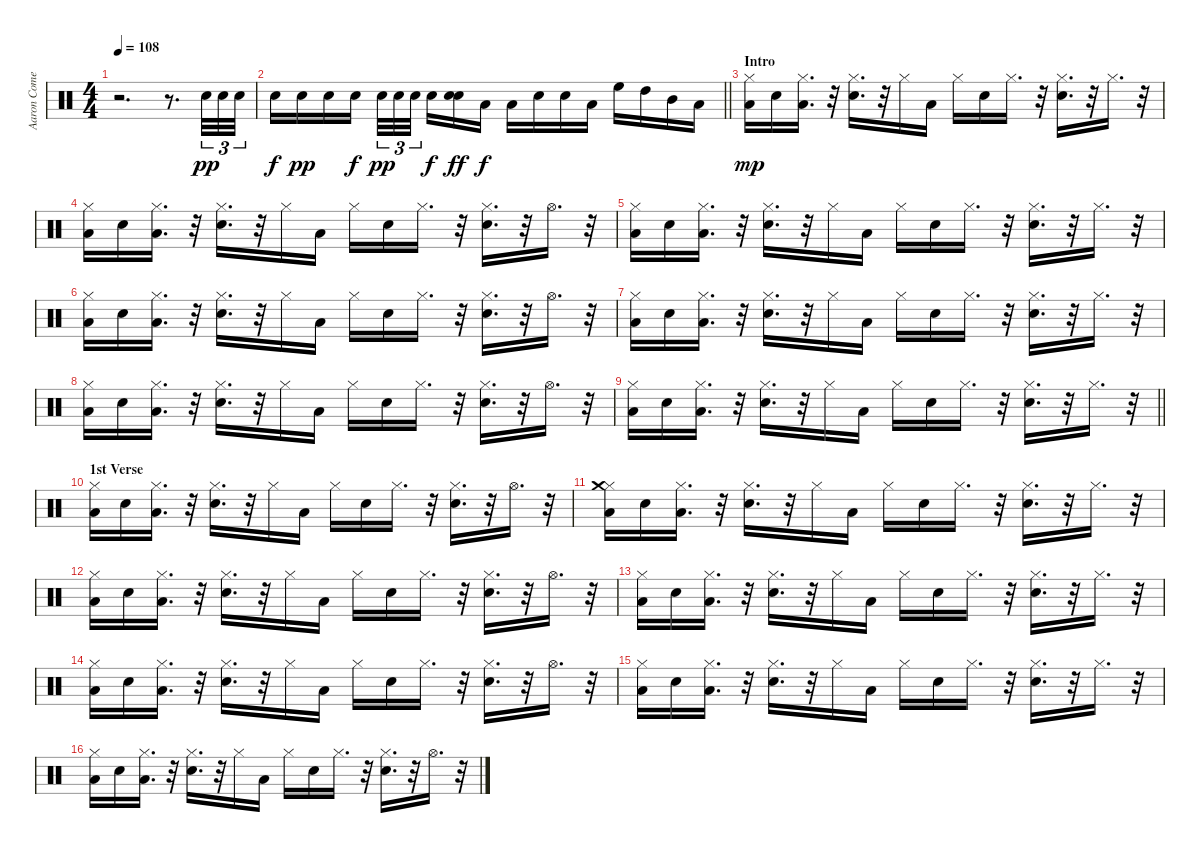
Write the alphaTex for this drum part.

\track ("Aaron Comess" "Aaron Come") {instrument percussion}
\staff {score}
\articulation defaults
\ts (4 4)
\tempo 108
\clef neutral
\ks c
r.2{d dy pp} r.8{d} "Snare (hit) 2".32{tu (3 2)} "Snare (hit) 2".32{tu (3 2)} "Snare (hit) 2".32{tu (3 2)} |
\barLineRight lightlight "Snare (hit) 2".16{dy f} "Snare (hit) 2".16{dy pp} "Snare (hit) 2".16 "Snare (hit) 2".16{dy f} "Snare (hit) 2".32{tu (3 2) dy pp} "Snare (hit) 2".32{tu (3 2)} "Snare (hit) 2".32{tu (3 2) beam splitsecondary} "Snare (hit) 2".16{dy f}
("Snare (hit) 2" "Electric Snare (hit)").16{dy ff} "Low Tom (hit)".16{dy f} "Low Tom (hit)".16 "Snare (hit) 2".16 "Snare (hit) 2".16 "Low Tom (hit)".16 "High Floor Tom (hit)".16 "High Tom (hit)".16 "Mid Tom (hit)".16 "Low Tom (hit)".16 |
\section ("" "Intro")
("Low Tom (hit)" "Hi-Hat (closed)").16{dy mp} "Electric Snare (hit)".16 ("Low Tom (hit)" "Hi-Hat (closed)").16{d} r.32 ("Snare (hit) 2" "Hi-Hat (closed)").16{d} r.32 "Hi-Hat (closed)".16 "Low Tom (hit)".16 "Hi-Hat (closed)".16 "Snare (hit) 2".16 "Hi-Hat (closed)".16{d} r.32 ("Snare (hit) 2" "Hi-Hat (closed)").16{d} r.32 "Hi-Hat (closed)".16{d} r.32 |
("Low Tom (hit)" "Hi-Hat (closed)").16 "Electric Snare (hit)".16 ("Low Tom (hit)" "Hi-Hat (closed)").16{d} r.32 ("Snare (hit) 2" "Hi-Hat (closed)").16{d} r.32 "Hi-Hat (closed)".16 "Low Tom (hit)".16 "Hi-Hat (closed)".16 "Snare (hit) 2".16 "Hi-Hat (closed)".16{d} r.32 ("Snare (hit) 2" "Hi-Hat (closed)").16{d} r.32 "Hi-Hat (open)".16{d} r.32 |
("Low Tom (hit)" "Hi-Hat (closed)").16 "Electric Snare (hit)".16 ("Low Tom (hit)" "Hi-Hat (closed)").16{d} r.32 ("Snare (hit) 2" "Hi-Hat (closed)").16{d} r.32 "Hi-Hat (closed)".16 "Low Tom (hit)".16 "Hi-Hat (closed)".16 "Snare (hit) 2".16 "Hi-Hat (closed)".16{d} r.32 ("Snare (hit) 2" "Hi-Hat (closed)").16{d} r.32 "Hi-Hat (closed)".16{d} r.32 |
("Low Tom (hit)" "Hi-Hat (closed)").16 "Electric Snare (hit)".16 ("Low Tom (hit)" "Hi-Hat (closed)").16{d} r.32 ("Snare (hit) 2" "Hi-Hat (closed)").16{d} r.32 "Hi-Hat (closed)".16 "Low Tom (hit)".16 "Hi-Hat (closed)".16 "Snare (hit) 2".16 "Hi-Hat (closed)".16{d} r.32 ("Snare (hit) 2" "Hi-Hat (closed)").16{d} r.32 "Hi-Hat (open)".16{d} r.32 |
("Low Tom (hit)" "Hi-Hat (closed)").16 "Electric Snare (hit)".16 ("Low Tom (hit)" "Hi-Hat (closed)").16{d} r.32 ("Snare (hit) 2" "Hi-Hat (closed)").16{d} r.32 "Hi-Hat (closed)".16 "Low Tom (hit)".16 "Hi-Hat (closed)".16 "Snare (hit) 2".16 "Hi-Hat (closed)".16{d} r.32 ("Snare (hit) 2" "Hi-Hat (closed)").16{d} r.32 "Hi-Hat (closed)".16{d} r.32 |
("Low Tom (hit)" "Hi-Hat (closed)").16 "Electric Snare (hit)".16 ("Low Tom (hit)" "Hi-Hat (closed)").16{d} r.32 ("Snare (hit) 2" "Hi-Hat (closed)").16{d} r.32 "Hi-Hat (closed)".16 "Low Tom (hit)".16 "Hi-Hat (closed)".16 "Snare (hit) 2".16 "Hi-Hat (closed)".16{d} r.32 ("Snare (hit) 2" "Hi-Hat (closed)").16{d} r.32 "Hi-Hat (open)".16{d} r.32 |
\barLineRight lightlight
("Low Tom (hit)" "Hi-Hat (closed)").16 "Electric Snare (hit)".16 ("Low Tom (hit)" "Hi-Hat (closed)").16{d} r.32 ("Snare (hit) 2" "Hi-Hat (closed)").16{d} r.32 "Hi-Hat (closed)".16 "Low Tom (hit)".16 "Hi-Hat (closed)".16 "Snare (hit) 2".16 "Hi-Hat (closed)".16{d} r.32 ("Snare (hit) 2" "Hi-Hat (closed)").16{d} r.32 "Hi-Hat (closed)".16{d} r.32 |
\section ("" "1st Verse")
("Low Tom (hit)" "Hi-Hat (closed)").16 "Electric Snare (hit)".16 ("Low Tom (hit)" "Hi-Hat (closed)").16{d} r.32 ("Snare (hit) 2" "Hi-Hat (closed)").16{d} r.32 "Hi-Hat (closed)".16 "Low Tom (hit)".16 "Hi-Hat (closed)".16 "Snare (hit) 2".16 "Hi-Hat (closed)".16{d} r.32 ("Snare (hit) 2" "Hi-Hat (closed)").16{d} r.32 "Hi-Hat (open)".16{d} r.32 |
("Low Tom (hit)" "Hi-Hat (closed)" "Crash medium (hit)").16 "Electric Snare (hit)".16 ("Low Tom (hit)" "Hi-Hat (closed)").16{d} r.32 ("Snare (hit) 2" "Hi-Hat (closed)").16{d} r.32 "Hi-Hat (closed)".16 "Low Tom (hit)".16 "Hi-Hat (closed)".16 "Snare (hit) 2".16 "Hi-Hat (closed)".16{d} r.32 ("Snare (hit) 2" "Hi-Hat (closed)").16{d} r.32 "Hi-Hat (closed)".16{d} r.32 |
("Low Tom (hit)" "Hi-Hat (closed)").16 "Electric Snare (hit)".16 ("Low Tom (hit)" "Hi-Hat (closed)").16{d} r.32 ("Snare (hit) 2" "Hi-Hat (closed)").16{d} r.32 "Hi-Hat (closed)".16 "Low Tom (hit)".16 "Hi-Hat (closed)".16 "Snare (hit) 2".16 "Hi-Hat (closed)".16{d} r.32 ("Snare (hit) 2" "Hi-Hat (closed)").16{d} r.32 "Hi-Hat (open)".16{d} r.32 |
("Low Tom (hit)" "Hi-Hat (closed)").16 "Electric Snare (hit)".16 ("Low Tom (hit)" "Hi-Hat (closed)").16{d} r.32 ("Snare (hit) 2" "Hi-Hat (closed)").16{d} r.32 "Hi-Hat (closed)".16 "Low Tom (hit)".16 "Hi-Hat (closed)".16 "Snare (hit) 2".16 "Hi-Hat (closed)".16{d} r.32 ("Snare (hit) 2" "Hi-Hat (closed)").16{d} r.32 "Hi-Hat (closed)".16{d} r.32 |
("Low Tom (hit)" "Hi-Hat (closed)").16 "Electric Snare (hit)".16 ("Low Tom (hit)" "Hi-Hat (closed)").16{d} r.32 ("Snare (hit) 2" "Hi-Hat (closed)").16{d} r.32 "Hi-Hat (closed)".16 "Low Tom (hit)".16 "Hi-Hat (closed)".16 "Snare (hit) 2".16 "Hi-Hat (closed)".16{d} r.32 ("Snare (hit) 2" "Hi-Hat (closed)").16{d} r.32 "Hi-Hat (open)".16{d} r.32 |
("Low Tom (hit)" "Hi-Hat (closed)").16 "Electric Snare (hit)".16 ("Low Tom (hit)" "Hi-Hat (closed)").16{d} r.32 ("Snare (hit) 2" "Hi-Hat (closed)").16{d} r.32 "Hi-Hat (closed)".16 "Low Tom (hit)".16 "Hi-Hat (closed)".16 "Snare (hit) 2".16 "Hi-Hat (closed)".16{d} r.32 ("Snare (hit) 2" "Hi-Hat (closed)").16{d} r.32 "Hi-Hat (closed)".16{d} r.32 |
("Low Tom (hit)" "Hi-Hat (closed)").16 "Electric Snare (hit)".16 ("Low Tom (hit)" "Hi-Hat (closed)").16{d} r.32 ("Snare (hit) 2" "Hi-Hat (closed)").16{d} r.32 "Hi-Hat (closed)".16 "Low Tom (hit)".16 "Hi-Hat (closed)".16 "Snare (hit) 2".16 "Hi-Hat (closed)".16{d} r.32 ("Snare (hit) 2" "Hi-Hat (closed)").16{d} r.32 "Hi-Hat (open)".16{d} r.32
